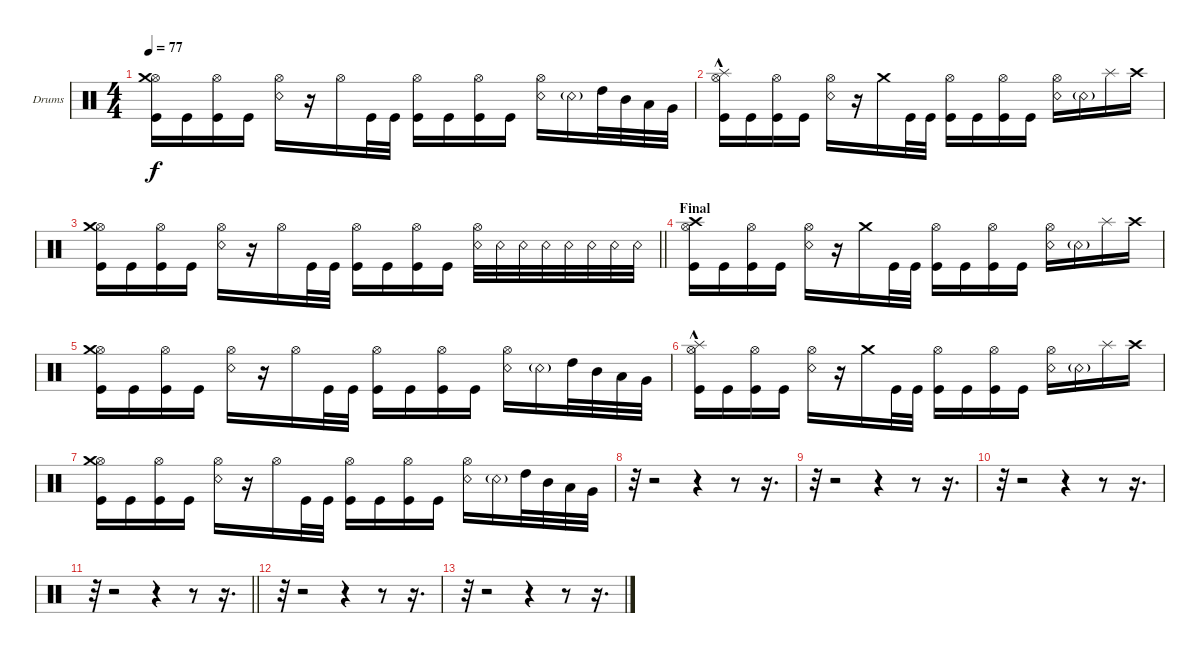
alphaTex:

\bracketExtendMode groupsimilarinstruments
\firstSystemTrackNameOrientation horizontal
\otherSystemsTrackNameOrientation horizontal
\track ("Drumkit" "Drums") {instrument percussion}
\staff {score}
\articulation defaults
\ts (4 4)
\tempo 77
\clef neutral
\ks c
("Hi-Hat (open)" "Kick (hit)" "Crash medium (hit)").16{dy f} "Kick (hit)".16 ("Hi-Hat (open)" "Kick (hit)").16 "Kick (hit)".16 ("Hi-Hat (open)" "Snare (rim shot)").16 r.16 "Hi-Hat (open)".16 "Kick (hit)".32 "Kick (hit)".32 ("Hi-Hat (open)" "Kick (hit)").16 "Kick (hit)".16 ("Hi-Hat (open)" "Kick (hit)").16 "Kick (hit)".16 ("Hi-Hat (open)" "Snare (rim shot)").16 "Snare (rim shot)"{g}.16 "High Tom (hit)".32 "Mid Tom (hit)".32 "Low Tom (hit)".32 "Very Low Tom (hit)".32 |
("Hi-Hat (open)" "Kick (hit)" "Splash (hit)"{hac}).16 "Kick (hit)".16 ("Hi-Hat (open)" "Kick (hit)").16 "Kick (hit)".16 ("Hi-Hat (open)" "Snare (rim shot)").16 r.16 "Crash medium (hit)".16 "Kick (hit)".32 "Kick (hit)".32 ("Hi-Hat (open)" "Kick (hit)").16 "Kick (hit)".16 ("Hi-Hat (open)" "Kick (hit)").16 "Kick (hit)".16 ("Hi-Hat (open)" "Snare (rim shot)").16 "Snare (rim shot)"{g}.16 "Splash (hit)".16 "Crash high (hit)".16 |
\barLineRight lightlight
("Hi-Hat (open)" "Kick (hit)" "Crash medium (hit)").16 "Kick (hit)".16 ("Hi-Hat (open)" "Kick (hit)").16 "Kick (hit)".16 ("Hi-Hat (open)" "Snare (rim shot)").16 r.16 "Hi-Hat (open)".16 "Kick (hit)".32 "Kick (hit)".32 ("Hi-Hat (open)" "Kick (hit)").16 "Kick (hit)".16 ("Hi-Hat (open)" "Kick (hit)").16 "Kick (hit)".16 ("Hi-Hat (open)" "Snare (rim shot)").32 "Snare (rim shot)".32 "Snare (rim shot)".32 "Snare (rim shot)".32 "Snare (rim shot)".32 "Snare (rim shot)".32 "Snare (rim shot)".32 "Snare (rim shot)".32 |
\section ("" "Final")
("Hi-Hat (open)" "Kick (hit)" "Crash high (hit)").16 "Kick (hit)".16 ("Hi-Hat (open)" "Kick (hit)").16 "Kick (hit)".16 ("Hi-Hat (open)" "Snare (rim shot)").16 r.16 "Crash medium (hit)".16 "Kick (hit)".32 "Kick (hit)".32 ("Hi-Hat (open)" "Kick (hit)").16 "Kick (hit)".16 ("Hi-Hat (open)" "Kick (hit)").16 "Kick (hit)".16 ("Hi-Hat (open)" "Snare (rim shot)").16 "Snare (rim shot)"{g}.16 "Splash (hit)".16 "Crash high (hit)".16 |
("Hi-Hat (open)" "Kick (hit)" "Crash medium (hit)").16 "Kick (hit)".16 ("Hi-Hat (open)" "Kick (hit)").16 "Kick (hit)".16 ("Hi-Hat (open)" "Snare (rim shot)").16 r.16 "Hi-Hat (open)".16 "Kick (hit)".32 "Kick (hit)".32 ("Hi-Hat (open)" "Kick (hit)").16 "Kick (hit)".16 ("Hi-Hat (open)" "Kick (hit)").16 "Kick (hit)".16 ("Hi-Hat (open)" "Snare (rim shot)").16 "Snare (rim shot)"{g}.16 "High Tom (hit)".32 "Mid Tom (hit)".32 "Low Tom (hit)".32 "Very Low Tom (hit)".32 |
("Hi-Hat (open)" "Kick (hit)" "Splash (hit)"{hac}).16 "Kick (hit)".16 ("Hi-Hat (open)" "Kick (hit)").16 "Kick (hit)".16 ("Hi-Hat (open)" "Snare (rim shot)").16 r.16 "Crash medium (hit)".16 "Kick (hit)".32 "Kick (hit)".32 ("Hi-Hat (open)" "Kick (hit)").16 "Kick (hit)".16 ("Hi-Hat (open)" "Kick (hit)").16 "Kick (hit)".16 ("Hi-Hat (open)" "Snare (rim shot)").16 "Snare (rim shot)"{g}.16 "Splash (hit)".16 "Crash high (hit)".16 |
("Hi-Hat (open)" "Kick (hit)" "Crash medium (hit)").16 "Kick (hit)".16 ("Hi-Hat (open)" "Kick (hit)").16 "Kick (hit)".16 ("Hi-Hat (open)" "Snare (rim shot)").16 r.16 "Hi-Hat (open)".16 "Kick (hit)".32 "Kick (hit)".32 ("Hi-Hat (open)" "Kick (hit)").16 "Kick (hit)".16 ("Hi-Hat (open)" "Kick (hit)").16 "Kick (hit)".16 ("Hi-Hat (open)" "Snare (rim shot)").16 "Snare (rim shot)"{g}.16 "High Tom (hit)".32 "Mid Tom (hit)".32 "Low Tom (hit)".32 "Very Low Tom (hit)".32 |
r.32 r.2 r.4 r.8 r.16{d} |
r.32 r.2 r.4 r.8 r.16{d} |
r.32 r.2 r.4 r.8 r.16{d} |
\barLineRight lightlight
r.32 r.2 r.4 r.8 r.16{d} |
r.32 r.2 r.4 r.8 r.16{d} |
r.32 r.2 r.4 r.8 r.16{d}
